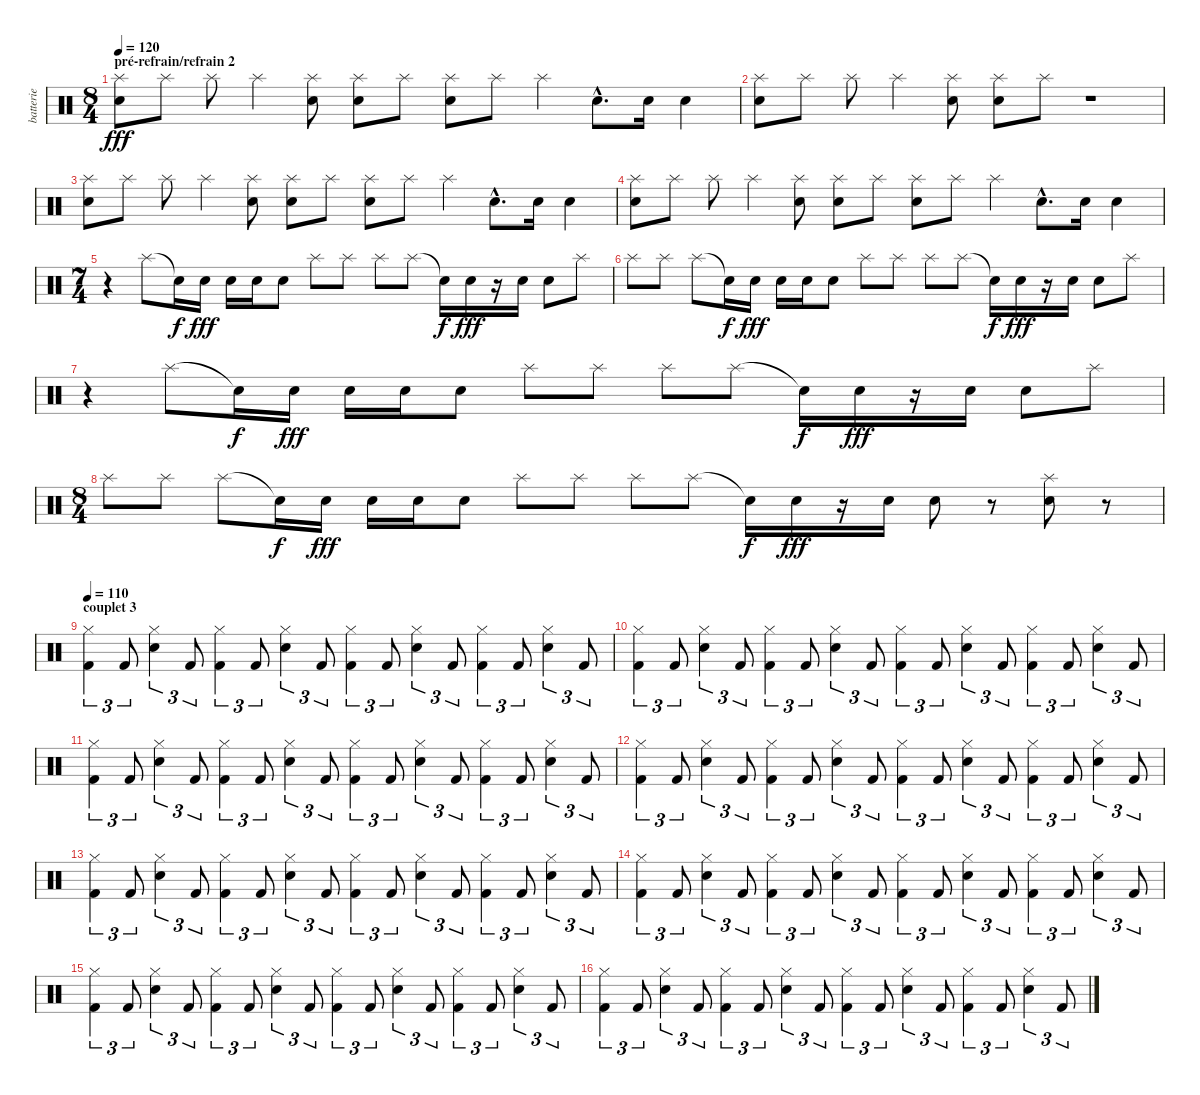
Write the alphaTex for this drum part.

\track ("batterie" "batterie") {instrument percussion}
\staff {score}
\articulation defaults
\ts (8 4)
\section ("" "pré-refrain/refrain 2")
\tempo 120
\clef neutral
\ks c
("Splash (hit)" "Electric Snare (hit)").8{dy fff} "Splash (hit)".8 "Splash (hit)".8 "Splash (hit)".4 ("Splash (hit)" "Electric Snare (hit)").8 ("Splash (hit)" "Electric Snare (hit)").8 "Splash (hit)".8 ("Splash (hit)" "Electric Snare (hit)").8 "Splash (hit)".8 "Splash (hit)".4 "Electric Snare (hit)"{hac}.8{d} "Electric Snare (hit)".16 "Electric Snare (hit)".4 |
("Splash (hit)" "Electric Snare (hit)").8 "Splash (hit)".8 "Splash (hit)".8 "Splash (hit)".4 ("Splash (hit)" "Electric Snare (hit)").8 ("Splash (hit)" "Electric Snare (hit)").8 "Splash (hit)".8 r.1 |
("Splash (hit)" "Electric Snare (hit)").8 "Splash (hit)".8 "Splash (hit)".8 "Splash (hit)".4 ("Splash (hit)" "Electric Snare (hit)").8 ("Splash (hit)" "Electric Snare (hit)").8 "Splash (hit)".8 ("Splash (hit)" "Electric Snare (hit)").8 "Splash (hit)".8 "Splash (hit)".4 "Electric Snare (hit)"{hac}.8{d} "Electric Snare (hit)".16 "Electric Snare (hit)".4 |
("Splash (hit)" "Electric Snare (hit)").8 "Splash (hit)".8 "Splash (hit)".8 "Splash (hit)".4 ("Splash (hit)" "Electric Snare (hit)").8 ("Splash (hit)" "Electric Snare (hit)").8 "Splash (hit)".8 ("Splash (hit)" "Electric Snare (hit)").8 "Splash (hit)".8 "Splash (hit)".4 "Electric Snare (hit)"{hac}.8{d} "Electric Snare (hit)".16 "Electric Snare (hit)".4 |
\ts (7 4)
r.4 "Splash (hit)".8 "Snare (hit)"{t}.16{dy f} "Electric Snare (hit)".16{dy fff} "Electric Snare (hit)".16 "Electric Snare (hit)".16 "Electric Snare (hit)".8 "Splash (hit)".8 "Splash (hit)".8 "Splash (hit)".8 "Splash (hit)".8 "Snare (hit)"{t}.16{dy f} "Electric Snare (hit)".16{dy fff} r.16 "Electric Snare (hit)".16 "Electric Snare (hit)".8 "Splash (hit)".8 |
"Splash (hit)".8 "Splash (hit)".8 "Splash (hit)".8 "Snare (hit)"{t}.16{dy f} "Electric Snare (hit)".16{dy fff} "Electric Snare (hit)".16 "Electric Snare (hit)".16 "Electric Snare (hit)".8 "Splash (hit)".8 "Splash (hit)".8 "Splash (hit)".8 "Splash (hit)".8 "Snare (hit)"{t}.16{dy f} "Electric Snare (hit)".16{dy fff} r.16 "Electric Snare (hit)".16 "Electric Snare (hit)".8 "Splash (hit)".8 |
r.4 "Splash (hit)".8 "Snare (hit)"{t}.16{dy f} "Electric Snare (hit)".16{dy fff} "Electric Snare (hit)".16 "Electric Snare (hit)".16 "Electric Snare (hit)".8 "Splash (hit)".8 "Splash (hit)".8 "Splash (hit)".8 "Splash (hit)".8 "Snare (hit)"{t}.16{dy f} "Electric Snare (hit)".16{dy fff} r.16 "Electric Snare (hit)".16 "Electric Snare (hit)".8 "Splash (hit)".8 |
\ts (8 4)
"Splash (hit)".8 "Splash (hit)".8 "Splash (hit)".8 "Snare (hit)"{t}.16{dy f} "Electric Snare (hit)".16{dy fff} "Electric Snare (hit)".16 "Electric Snare (hit)".16 "Electric Snare (hit)".8 "Splash (hit)".8 "Splash (hit)".8 "Splash (hit)".8 "Splash (hit)".8 "Snare (hit)"{t}.16{dy f} "Electric Snare (hit)".16{dy fff} r.16 "Electric Snare (hit)".16 "Electric Snare (hit)".8 r.8 ("Splash (hit)" "Electric Snare (hit)").8 r.8 |
\section ("" "couplet 3")
\tempo 110
("Hi-Hat (closed)" "Kick (hit) 2").4{tu (3 2)} "Kick (hit) 2".8{tu (3 2)} ("Hi-Hat (closed)" "Electric Snare (hit)").4{tu (3 2)} "Kick (hit) 2".8{tu (3 2)} ("Hi-Hat (closed)" "Kick (hit) 2").4{tu (3 2)} "Kick (hit) 2".8{tu (3 2)} ("Hi-Hat (closed)" "Electric Snare (hit)").4{tu (3 2)} "Kick (hit) 2".8{tu (3 2)} ("Hi-Hat (closed)" "Kick (hit) 2").4{tu (3 2)} "Kick (hit) 2".8{tu (3 2)} ("Hi-Hat (closed)" "Electric Snare (hit)").4{tu (3 2)} "Kick (hit) 2".8{tu (3 2)} ("Hi-Hat (closed)" "Kick (hit) 2").4{tu (3 2)} "Kick (hit) 2".8{tu (3 2)} ("Hi-Hat (closed)" "Electric Snare (hit)").4{tu (3 2)} "Kick (hit) 2".8{tu (3 2)} |
("Hi-Hat (closed)" "Kick (hit) 2").4{tu (3 2)} "Kick (hit) 2".8{tu (3 2)} ("Hi-Hat (closed)" "Electric Snare (hit)").4{tu (3 2)} "Kick (hit) 2".8{tu (3 2)} ("Hi-Hat (closed)" "Kick (hit) 2").4{tu (3 2)} "Kick (hit) 2".8{tu (3 2)} ("Hi-Hat (closed)" "Electric Snare (hit)").4{tu (3 2)} "Kick (hit) 2".8{tu (3 2)} ("Hi-Hat (closed)" "Kick (hit) 2").4{tu (3 2)} "Kick (hit) 2".8{tu (3 2)} ("Hi-Hat (closed)" "Electric Snare (hit)").4{tu (3 2)} "Kick (hit) 2".8{tu (3 2)} ("Hi-Hat (closed)" "Kick (hit) 2").4{tu (3 2)} "Kick (hit) 2".8{tu (3 2)} ("Hi-Hat (closed)" "Electric Snare (hit)").4{tu (3 2)} "Kick (hit) 2".8{tu (3 2)} |
("Hi-Hat (closed)" "Kick (hit) 2").4{tu (3 2)} "Kick (hit) 2".8{tu (3 2)} ("Hi-Hat (closed)" "Electric Snare (hit)").4{tu (3 2)} "Kick (hit) 2".8{tu (3 2)} ("Hi-Hat (closed)" "Kick (hit) 2").4{tu (3 2)} "Kick (hit) 2".8{tu (3 2)} ("Hi-Hat (closed)" "Electric Snare (hit)").4{tu (3 2)} "Kick (hit) 2".8{tu (3 2)} ("Hi-Hat (closed)" "Kick (hit) 2").4{tu (3 2)} "Kick (hit) 2".8{tu (3 2)} ("Hi-Hat (closed)" "Electric Snare (hit)").4{tu (3 2)} "Kick (hit) 2".8{tu (3 2)} ("Hi-Hat (closed)" "Kick (hit) 2").4{tu (3 2)} "Kick (hit) 2".8{tu (3 2)} ("Hi-Hat (closed)" "Electric Snare (hit)").4{tu (3 2)} "Kick (hit) 2".8{tu (3 2)} |
("Hi-Hat (closed)" "Kick (hit) 2").4{tu (3 2)} "Kick (hit) 2".8{tu (3 2)} ("Hi-Hat (closed)" "Electric Snare (hit)").4{tu (3 2)} "Kick (hit) 2".8{tu (3 2)} ("Hi-Hat (closed)" "Kick (hit) 2").4{tu (3 2)} "Kick (hit) 2".8{tu (3 2)} ("Hi-Hat (closed)" "Electric Snare (hit)").4{tu (3 2)} "Kick (hit) 2".8{tu (3 2)} ("Hi-Hat (closed)" "Kick (hit) 2").4{tu (3 2)} "Kick (hit) 2".8{tu (3 2)} ("Hi-Hat (closed)" "Electric Snare (hit)").4{tu (3 2)} "Kick (hit) 2".8{tu (3 2)} ("Hi-Hat (closed)" "Kick (hit) 2").4{tu (3 2)} "Kick (hit) 2".8{tu (3 2)} ("Hi-Hat (closed)" "Electric Snare (hit)").4{tu (3 2)} "Kick (hit) 2".8{tu (3 2)} |
("Hi-Hat (closed)" "Kick (hit) 2").4{tu (3 2)} "Kick (hit) 2".8{tu (3 2)} ("Hi-Hat (closed)" "Electric Snare (hit)").4{tu (3 2)} "Kick (hit) 2".8{tu (3 2)} ("Hi-Hat (closed)" "Kick (hit) 2").4{tu (3 2)} "Kick (hit) 2".8{tu (3 2)} ("Hi-Hat (closed)" "Electric Snare (hit)").4{tu (3 2)} "Kick (hit) 2".8{tu (3 2)} ("Hi-Hat (closed)" "Kick (hit) 2").4{tu (3 2)} "Kick (hit) 2".8{tu (3 2)} ("Hi-Hat (closed)" "Electric Snare (hit)").4{tu (3 2)} "Kick (hit) 2".8{tu (3 2)} ("Hi-Hat (closed)" "Kick (hit) 2").4{tu (3 2)} "Kick (hit) 2".8{tu (3 2)} ("Hi-Hat (closed)" "Electric Snare (hit)").4{tu (3 2)} "Kick (hit) 2".8{tu (3 2)} |
("Hi-Hat (closed)" "Kick (hit) 2").4{tu (3 2)} "Kick (hit) 2".8{tu (3 2)} ("Hi-Hat (closed)" "Electric Snare (hit)").4{tu (3 2)} "Kick (hit) 2".8{tu (3 2)} ("Hi-Hat (closed)" "Kick (hit) 2").4{tu (3 2)} "Kick (hit) 2".8{tu (3 2)} ("Hi-Hat (closed)" "Electric Snare (hit)").4{tu (3 2)} "Kick (hit) 2".8{tu (3 2)} ("Hi-Hat (closed)" "Kick (hit) 2").4{tu (3 2)} "Kick (hit) 2".8{tu (3 2)} ("Hi-Hat (closed)" "Electric Snare (hit)").4{tu (3 2)} "Kick (hit) 2".8{tu (3 2)} ("Hi-Hat (closed)" "Kick (hit) 2").4{tu (3 2)} "Kick (hit) 2".8{tu (3 2)} ("Hi-Hat (closed)" "Electric Snare (hit)").4{tu (3 2)} "Kick (hit) 2".8{tu (3 2)} |
("Hi-Hat (closed)" "Kick (hit) 2").4{tu (3 2)} "Kick (hit) 2".8{tu (3 2)} ("Hi-Hat (closed)" "Electric Snare (hit)").4{tu (3 2)} "Kick (hit) 2".8{tu (3 2)} ("Hi-Hat (closed)" "Kick (hit) 2").4{tu (3 2)} "Kick (hit) 2".8{tu (3 2)} ("Hi-Hat (closed)" "Electric Snare (hit)").4{tu (3 2)} "Kick (hit) 2".8{tu (3 2)} ("Hi-Hat (closed)" "Kick (hit) 2").4{tu (3 2)} "Kick (hit) 2".8{tu (3 2)} ("Hi-Hat (closed)" "Electric Snare (hit)").4{tu (3 2)} "Kick (hit) 2".8{tu (3 2)} ("Hi-Hat (closed)" "Kick (hit) 2").4{tu (3 2)} "Kick (hit) 2".8{tu (3 2)} ("Hi-Hat (closed)" "Electric Snare (hit)").4{tu (3 2)} "Kick (hit) 2".8{tu (3 2)} |
("Hi-Hat (closed)" "Kick (hit) 2").4{tu (3 2)} "Kick (hit) 2".8{tu (3 2)} ("Hi-Hat (closed)" "Electric Snare (hit)").4{tu (3 2)} "Kick (hit) 2".8{tu (3 2)} ("Hi-Hat (closed)" "Kick (hit) 2").4{tu (3 2)} "Kick (hit) 2".8{tu (3 2)} ("Hi-Hat (closed)" "Electric Snare (hit)").4{tu (3 2)} "Kick (hit) 2".8{tu (3 2)} ("Hi-Hat (closed)" "Kick (hit) 2").4{tu (3 2)} "Kick (hit) 2".8{tu (3 2)} ("Hi-Hat (closed)" "Electric Snare (hit)").4{tu (3 2)} "Kick (hit) 2".8{tu (3 2)} ("Hi-Hat (closed)" "Kick (hit) 2").4{tu (3 2)} "Kick (hit) 2".8{tu (3 2)} ("Hi-Hat (closed)" "Electric Snare (hit)").4{tu (3 2)} "Kick (hit) 2".8{tu (3 2)}
